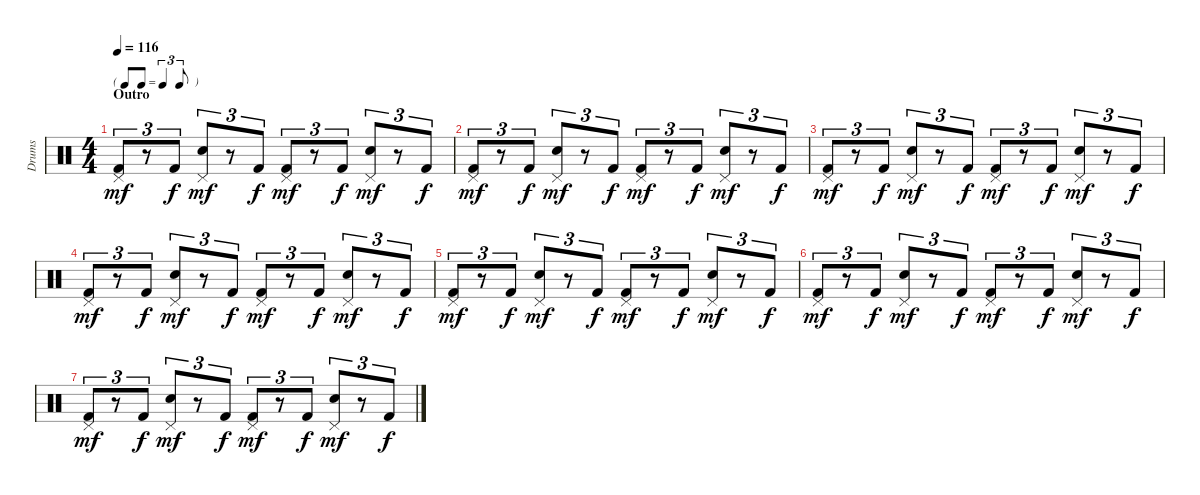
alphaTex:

\track ("Drums" "Drums") {instrument percussion}
\staff {score}
\articulation defaults
\ts (4 4)
\tf triplet8th
\section ("" "Outro")
\tempo 116
\clef neutral
\ks c
("Pedal Hi-Hat (hit)" "Kick (hit) 2").8{tu (3 2) dy mf} r.8{tu (3 2)} "Kick (hit) 2".8{tu (3 2) dy f} ("Pedal Hi-Hat (hit)" "Snare (hit) 2").8{tu (3 2) dy mf} r.8{tu (3 2)} "Kick (hit) 2".8{tu (3 2) dy f} ("Pedal Hi-Hat (hit)" "Kick (hit) 2").8{tu (3 2) dy mf} r.8{tu (3 2)} "Kick (hit) 2".8{tu (3 2) dy f} ("Pedal Hi-Hat (hit)" "Snare (hit) 2").8{tu (3 2) dy mf} r.8{tu (3 2)} "Kick (hit) 2".8{tu (3 2) dy f} |
("Pedal Hi-Hat (hit)" "Kick (hit) 2").8{tu (3 2) dy mf} r.8{tu (3 2)} "Kick (hit) 2".8{tu (3 2) dy f} ("Pedal Hi-Hat (hit)" "Snare (hit) 2").8{tu (3 2) dy mf} r.8{tu (3 2)} "Kick (hit) 2".8{tu (3 2) dy f} ("Pedal Hi-Hat (hit)" "Kick (hit) 2").8{tu (3 2) dy mf} r.8{tu (3 2)} "Kick (hit) 2".8{tu (3 2) dy f} ("Pedal Hi-Hat (hit)" "Snare (hit) 2").8{tu (3 2) dy mf} r.8{tu (3 2)} "Kick (hit) 2".8{tu (3 2) dy f} |
("Pedal Hi-Hat (hit)" "Kick (hit) 2").8{tu (3 2) dy mf volume 0} r.8{tu (3 2)} "Kick (hit) 2".8{tu (3 2) dy f} ("Pedal Hi-Hat (hit)" "Snare (hit) 2").8{tu (3 2) dy mf} r.8{tu (3 2)} "Kick (hit) 2".8{tu (3 2) dy f} ("Pedal Hi-Hat (hit)" "Kick (hit) 2").8{tu (3 2) dy mf} r.8{tu (3 2)} "Kick (hit) 2".8{tu (3 2) dy f} ("Pedal Hi-Hat (hit)" "Snare (hit) 2").8{tu (3 2) dy mf} r.8{tu (3 2)} "Kick (hit) 2".8{tu (3 2) dy f} |
("Pedal Hi-Hat (hit)" "Kick (hit) 2").8{tu (3 2) dy mf} r.8{tu (3 2)} "Kick (hit) 2".8{tu (3 2) dy f} ("Pedal Hi-Hat (hit)" "Snare (hit) 2").8{tu (3 2) dy mf} r.8{tu (3 2)} "Kick (hit) 2".8{tu (3 2) dy f} ("Pedal Hi-Hat (hit)" "Kick (hit) 2").8{tu (3 2) dy mf} r.8{tu (3 2)} "Kick (hit) 2".8{tu (3 2) dy f} ("Pedal Hi-Hat (hit)" "Snare (hit) 2").8{tu (3 2) dy mf} r.8{tu (3 2)} "Kick (hit) 2".8{tu (3 2) dy f} |
("Pedal Hi-Hat (hit)" "Kick (hit) 2").8{tu (3 2) dy mf} r.8{tu (3 2)} "Kick (hit) 2".8{tu (3 2) dy f} ("Pedal Hi-Hat (hit)" "Snare (hit) 2").8{tu (3 2) dy mf} r.8{tu (3 2)} "Kick (hit) 2".8{tu (3 2) dy f} ("Pedal Hi-Hat (hit)" "Kick (hit) 2").8{tu (3 2) dy mf} r.8{tu (3 2)} "Kick (hit) 2".8{tu (3 2) dy f} ("Pedal Hi-Hat (hit)" "Snare (hit) 2").8{tu (3 2) dy mf} r.8{tu (3 2)} "Kick (hit) 2".8{tu (3 2) dy f} |
("Pedal Hi-Hat (hit)" "Kick (hit) 2").8{tu (3 2) dy mf} r.8{tu (3 2)} "Kick (hit) 2".8{tu (3 2) dy f} ("Pedal Hi-Hat (hit)" "Snare (hit) 2").8{tu (3 2) dy mf} r.8{tu (3 2)} "Kick (hit) 2".8{tu (3 2) dy f} ("Pedal Hi-Hat (hit)" "Kick (hit) 2").8{tu (3 2) dy mf} r.8{tu (3 2)} "Kick (hit) 2".8{tu (3 2) dy f} ("Pedal Hi-Hat (hit)" "Snare (hit) 2").8{tu (3 2) dy mf} r.8{tu (3 2)} "Kick (hit) 2".8{tu (3 2) dy f} |
("Pedal Hi-Hat (hit)" "Kick (hit) 2").8{tu (3 2) dy mf} r.8{tu (3 2)} "Kick (hit) 2".8{tu (3 2) dy f} ("Pedal Hi-Hat (hit)" "Snare (hit) 2").8{tu (3 2) dy mf} r.8{tu (3 2)} "Kick (hit) 2".8{tu (3 2) dy f} ("Pedal Hi-Hat (hit)" "Kick (hit) 2").8{tu (3 2) dy mf} r.8{tu (3 2)} "Kick (hit) 2".8{tu (3 2) dy f} ("Pedal Hi-Hat (hit)" "Snare (hit) 2").8{tu (3 2) dy mf} r.8{tu (3 2)} "Kick (hit) 2".8{tu (3 2) dy f}
